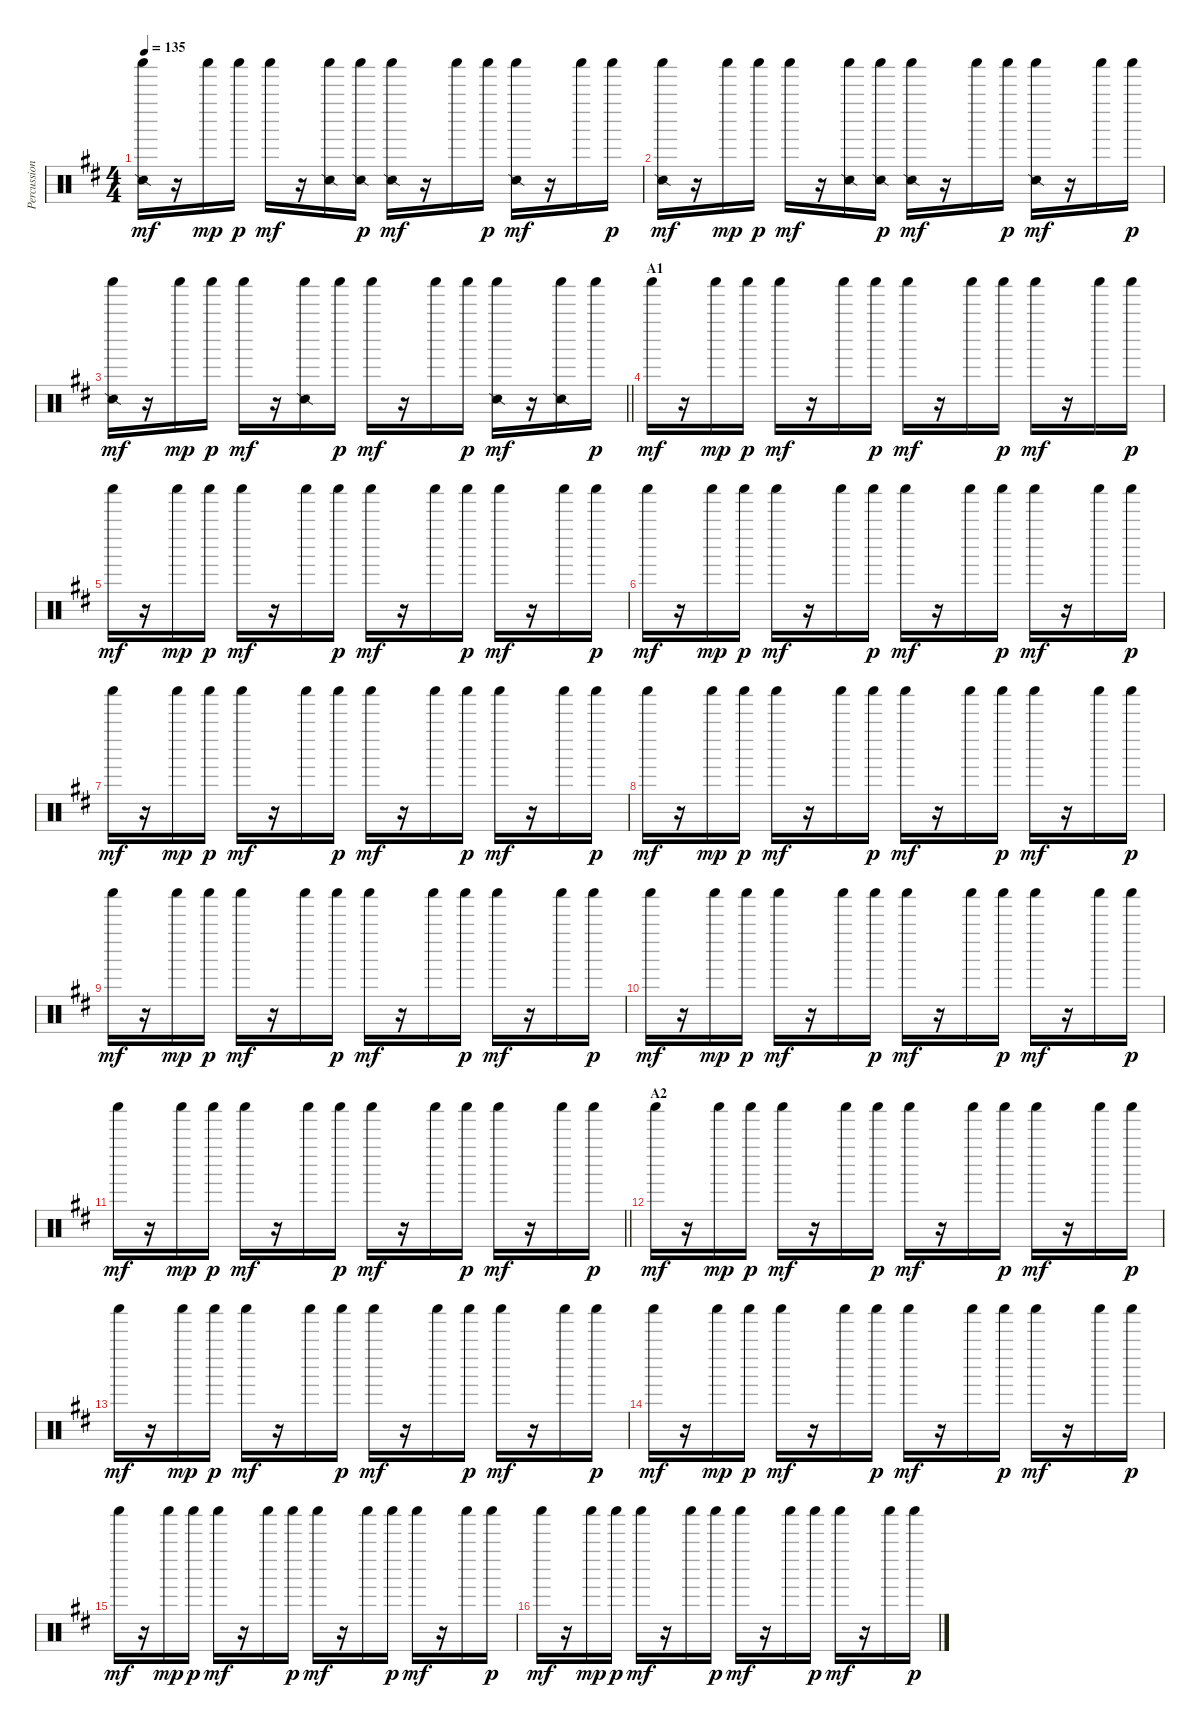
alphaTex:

\track ("Percussion" "Percussion") {instrument percussion}
\staff {score}
\articulation defaults
\ts (4 4)
\tempo 135
\clef neutral
\ks d
("Snare (side stick) 2" "Shaker (hit)").16{dy mf} r.16 "Shaker (hit)".16{dy mp} "Shaker (hit)".16{dy p} "Shaker (hit)".16{dy mf} r.16 ("Snare (side stick) 2" "Shaker (hit)").16 ("Snare (side stick) 2" "Shaker (hit)").16{dy p} ("Snare (side stick) 2" "Shaker (hit)").16{dy mf} r.16 "Shaker (hit)".16 "Shaker (hit)".16{dy p} ("Snare (side stick) 2" "Shaker (hit)").16{dy mf} r.16 "Shaker (hit)".16 "Shaker (hit)".16{dy p} |
("Snare (side stick) 2" "Shaker (hit)").16{dy mf} r.16 "Shaker (hit)".16{dy mp} "Shaker (hit)".16{dy p} "Shaker (hit)".16{dy mf} r.16 ("Snare (side stick) 2" "Shaker (hit)").16 ("Snare (side stick) 2" "Shaker (hit)").16{dy p} ("Snare (side stick) 2" "Shaker (hit)").16{dy mf} r.16 "Shaker (hit)".16 "Shaker (hit)".16{dy p} ("Snare (side stick) 2" "Shaker (hit)").16{dy mf} r.16 "Shaker (hit)".16 "Shaker (hit)".16{dy p} |
\barLineRight lightlight
("Snare (side stick) 2" "Shaker (hit)").16{dy mf} r.16 "Shaker (hit)".16{dy mp} "Shaker (hit)".16{dy p} "Shaker (hit)".16{dy mf} r.16 ("Snare (side stick) 2" "Shaker (hit)").16 "Shaker (hit)".16{dy p} "Shaker (hit)".16{dy mf} r.16 "Shaker (hit)".16 "Shaker (hit)".16{dy p} ("Snare (side stick) 2" "Shaker (hit)").16{dy mf} r.16 ("Snare (side stick) 2" "Shaker (hit)").16 "Shaker (hit)".16{dy p} |
\section ("" "A1")
"Shaker (hit)".16{dy mf} r.16 "Shaker (hit)".16{dy mp} "Shaker (hit)".16{dy p} "Shaker (hit)".16{dy mf} r.16 "Shaker (hit)".16 "Shaker (hit)".16{dy p} "Shaker (hit)".16{dy mf} r.16 "Shaker (hit)".16 "Shaker (hit)".16{dy p} "Shaker (hit)".16{dy mf} r.16 "Shaker (hit)".16 "Shaker (hit)".16{dy p} |
"Shaker (hit)".16{dy mf} r.16 "Shaker (hit)".16{dy mp} "Shaker (hit)".16{dy p} "Shaker (hit)".16{dy mf} r.16 "Shaker (hit)".16 "Shaker (hit)".16{dy p} "Shaker (hit)".16{dy mf} r.16 "Shaker (hit)".16 "Shaker (hit)".16{dy p} "Shaker (hit)".16{dy mf} r.16 "Shaker (hit)".16 "Shaker (hit)".16{dy p} |
"Shaker (hit)".16{dy mf} r.16 "Shaker (hit)".16{dy mp} "Shaker (hit)".16{dy p} "Shaker (hit)".16{dy mf} r.16 "Shaker (hit)".16 "Shaker (hit)".16{dy p} "Shaker (hit)".16{dy mf} r.16 "Shaker (hit)".16 "Shaker (hit)".16{dy p} "Shaker (hit)".16{dy mf} r.16 "Shaker (hit)".16 "Shaker (hit)".16{dy p} |
"Shaker (hit)".16{dy mf} r.16 "Shaker (hit)".16{dy mp} "Shaker (hit)".16{dy p} "Shaker (hit)".16{dy mf} r.16 "Shaker (hit)".16 "Shaker (hit)".16{dy p} "Shaker (hit)".16{dy mf} r.16 "Shaker (hit)".16 "Shaker (hit)".16{dy p} "Shaker (hit)".16{dy mf} r.16 "Shaker (hit)".16 "Shaker (hit)".16{dy p} |
"Shaker (hit)".16{dy mf} r.16 "Shaker (hit)".16{dy mp} "Shaker (hit)".16{dy p} "Shaker (hit)".16{dy mf} r.16 "Shaker (hit)".16 "Shaker (hit)".16{dy p} "Shaker (hit)".16{dy mf} r.16 "Shaker (hit)".16 "Shaker (hit)".16{dy p} "Shaker (hit)".16{dy mf} r.16 "Shaker (hit)".16 "Shaker (hit)".16{dy p} |
"Shaker (hit)".16{dy mf} r.16 "Shaker (hit)".16{dy mp} "Shaker (hit)".16{dy p} "Shaker (hit)".16{dy mf} r.16 "Shaker (hit)".16 "Shaker (hit)".16{dy p} "Shaker (hit)".16{dy mf} r.16 "Shaker (hit)".16 "Shaker (hit)".16{dy p} "Shaker (hit)".16{dy mf} r.16 "Shaker (hit)".16 "Shaker (hit)".16{dy p} |
"Shaker (hit)".16{dy mf} r.16 "Shaker (hit)".16{dy mp} "Shaker (hit)".16{dy p} "Shaker (hit)".16{dy mf} r.16 "Shaker (hit)".16 "Shaker (hit)".16{dy p} "Shaker (hit)".16{dy mf} r.16 "Shaker (hit)".16 "Shaker (hit)".16{dy p} "Shaker (hit)".16{dy mf} r.16 "Shaker (hit)".16 "Shaker (hit)".16{dy p} |
\barLineRight lightlight "Shaker (hit)".16{dy mf}
r.16 "Shaker (hit)".16{dy mp} "Shaker (hit)".16{dy p} "Shaker (hit)".16{dy mf} r.16 "Shaker (hit)".16 "Shaker (hit)".16{dy p} "Shaker (hit)".16{dy mf} r.16 "Shaker (hit)".16 "Shaker (hit)".16{dy p} "Shaker (hit)".16{dy mf} r.16 "Shaker (hit)".16 "Shaker (hit)".16{dy p} |
\section ("" "A2")
"Shaker (hit)".16{dy mf} r.16 "Shaker (hit)".16{dy mp} "Shaker (hit)".16{dy p} "Shaker (hit)".16{dy mf} r.16 "Shaker (hit)".16 "Shaker (hit)".16{dy p} "Shaker (hit)".16{dy mf} r.16 "Shaker (hit)".16 "Shaker (hit)".16{dy p} "Shaker (hit)".16{dy mf} r.16 "Shaker (hit)".16 "Shaker (hit)".16{dy p} |
"Shaker (hit)".16{dy mf} r.16 "Shaker (hit)".16{dy mp} "Shaker (hit)".16{dy p} "Shaker (hit)".16{dy mf} r.16 "Shaker (hit)".16 "Shaker (hit)".16{dy p} "Shaker (hit)".16{dy mf} r.16 "Shaker (hit)".16 "Shaker (hit)".16{dy p} "Shaker (hit)".16{dy mf} r.16 "Shaker (hit)".16 "Shaker (hit)".16{dy p} |
"Shaker (hit)".16{dy mf} r.16 "Shaker (hit)".16{dy mp} "Shaker (hit)".16{dy p} "Shaker (hit)".16{dy mf} r.16 "Shaker (hit)".16 "Shaker (hit)".16{dy p} "Shaker (hit)".16{dy mf} r.16 "Shaker (hit)".16 "Shaker (hit)".16{dy p} "Shaker (hit)".16{dy mf} r.16 "Shaker (hit)".16 "Shaker (hit)".16{dy p} |
"Shaker (hit)".16{dy mf} r.16 "Shaker (hit)".16{dy mp} "Shaker (hit)".16{dy p} "Shaker (hit)".16{dy mf} r.16 "Shaker (hit)".16 "Shaker (hit)".16{dy p} "Shaker (hit)".16{dy mf} r.16 "Shaker (hit)".16 "Shaker (hit)".16{dy p} "Shaker (hit)".16{dy mf} r.16 "Shaker (hit)".16 "Shaker (hit)".16{dy p} |
"Shaker (hit)".16{dy mf} r.16 "Shaker (hit)".16{dy mp} "Shaker (hit)".16{dy p} "Shaker (hit)".16{dy mf} r.16 "Shaker (hit)".16 "Shaker (hit)".16{dy p} "Shaker (hit)".16{dy mf} r.16 "Shaker (hit)".16 "Shaker (hit)".16{dy p} "Shaker (hit)".16{dy mf} r.16 "Shaker (hit)".16 "Shaker (hit)".16{dy p}
